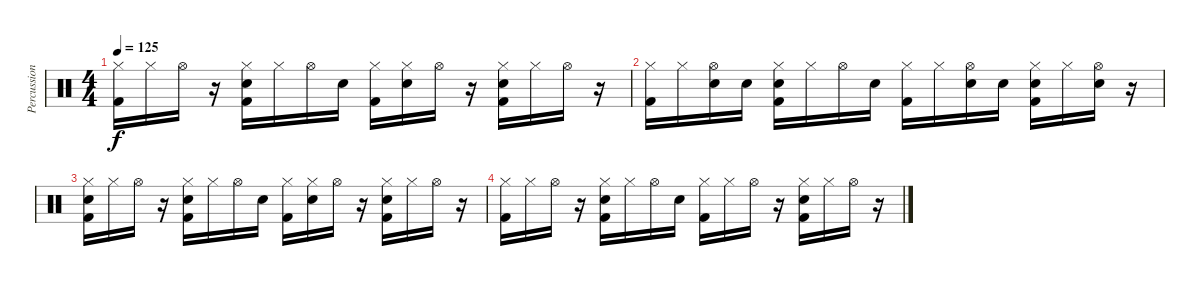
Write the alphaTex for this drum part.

\track ("Percussion" "Percussion") {instrument percussion}
\staff {score}
\articulation defaults
\ts (4 4)
\tempo 125
\clef neutral
\ks c
("Hi-Hat (closed)" "Kick (hit) 2").16{dy f} "Hi-Hat (closed)".16 "Hi-Hat (open)".16 r.16 ("Hi-Hat (closed)" "Electric Snare (hit)" "Kick (hit) 2").16 "Hi-Hat (closed)".16 "Hi-Hat (open)".16 "Electric Snare (hit)".16 ("Hi-Hat (closed)" "Kick (hit) 2").16 ("Hi-Hat (closed)" "Electric Snare (hit)").16 "Hi-Hat (open)".16 r.16 ("Hi-Hat (closed)" "Electric Snare (hit)" "Kick (hit) 2").16 "Hi-Hat (closed)".16 "Hi-Hat (open)".16 r.16 |
("Hi-Hat (closed)" "Kick (hit) 2").16 "Hi-Hat (closed)".16 ("Hi-Hat (open)" "Electric Snare (hit)").16 "Electric Snare (hit)".16 ("Hi-Hat (closed)" "Electric Snare (hit)" "Kick (hit) 2").16 "Hi-Hat (closed)".16 "Hi-Hat (open)".16 "Electric Snare (hit)".16 ("Hi-Hat (closed)" "Kick (hit) 2").16 "Hi-Hat (closed)".16 ("Hi-Hat (open)" "Electric Snare (hit)").16 "Electric Snare (hit)".16 ("Hi-Hat (closed)" "Electric Snare (hit)" "Kick (hit) 2").16 "Hi-Hat (closed)".16 ("Hi-Hat (open)" "Electric Snare (hit)").16 r.16 |
("Hi-Hat (closed)" "Electric Snare (hit)" "Kick (hit) 2").16 "Hi-Hat (closed)".16 "Hi-Hat (open)".16 r.16 ("Hi-Hat (closed)" "Electric Snare (hit)" "Kick (hit) 2").16 "Hi-Hat (closed)".16 "Hi-Hat (open)".16 "Electric Snare (hit)".16 ("Hi-Hat (closed)" "Kick (hit) 2").16 ("Hi-Hat (closed)" "Electric Snare (hit)").16 "Hi-Hat (open)".16 r.16 ("Hi-Hat (closed)" "Electric Snare (hit)" "Kick (hit) 2").16 "Hi-Hat (closed)".16 "Hi-Hat (open)".16 r.16 |
("Hi-Hat (closed)" "Kick (hit) 2").16 "Hi-Hat (closed)".16 "Hi-Hat (open)".16 r.16 ("Hi-Hat (closed)" "Electric Snare (hit)" "Kick (hit) 2").16 "Hi-Hat (closed)".16 "Hi-Hat (open)".16 "Electric Snare (hit)".16 ("Hi-Hat (closed)" "Kick (hit) 2").16 "Hi-Hat (closed)".16 "Hi-Hat (open)".16 r.16 ("Hi-Hat (closed)" "Electric Snare (hit)" "Kick (hit) 2").16 "Hi-Hat (closed)".16 "Hi-Hat (open)".16 r.16
